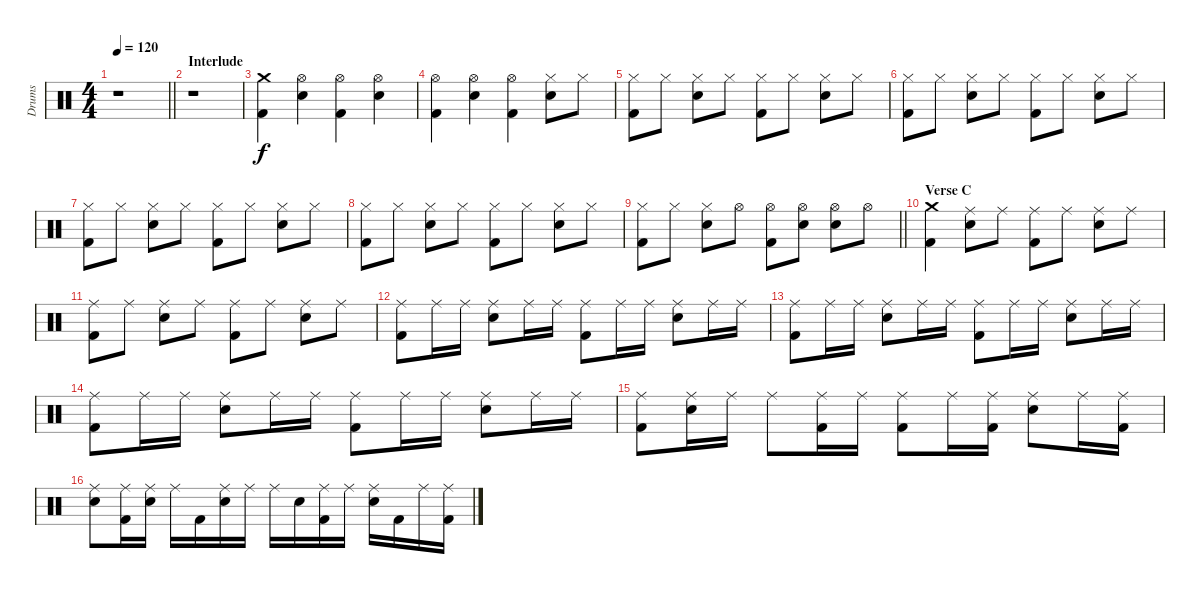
\track ("Drums" "Drums") {instrument percussion}
\staff {score}
\articulation defaults
\ts (4 4)
\tempo 120
\clef neutral
\barLineRight lightlight
\ks c
r.1{dy f} |
\section ("" "Interlude")
r.1 |
("Crash medium (hit)" "Kick (hit) 2").4 ("Hi-Hat (open)" "Electric Snare (hit)").4 ("Hi-Hat (open)" "Kick (hit) 2").4 ("Hi-Hat (open)" "Electric Snare (hit)").4 |
("Hi-Hat (open)" "Kick (hit) 2").4 ("Hi-Hat (open)" "Electric Snare (hit)").4 ("Hi-Hat (open)" "Kick (hit) 2").4 ("Hi-Hat (closed)" "Electric Snare (hit)").8 "Hi-Hat (closed)".8 |
("Hi-Hat (closed)" "Kick (hit) 2").8 "Hi-Hat (closed)".8 ("Hi-Hat (closed)" "Electric Snare (hit)").8 "Hi-Hat (closed)".8 ("Hi-Hat (closed)" "Kick (hit) 2").8 "Hi-Hat (closed)".8 ("Hi-Hat (closed)" "Electric Snare (hit)").8 "Hi-Hat (closed)".8 |
("Hi-Hat (closed)" "Kick (hit) 2").8 "Hi-Hat (closed)".8 ("Hi-Hat (closed)" "Electric Snare (hit)").8 "Hi-Hat (closed)".8 ("Hi-Hat (closed)" "Kick (hit) 2").8 "Hi-Hat (closed)".8 ("Hi-Hat (closed)" "Electric Snare (hit)").8 "Hi-Hat (closed)".8 |
("Hi-Hat (closed)" "Kick (hit) 2").8 "Hi-Hat (closed)".8 ("Hi-Hat (closed)" "Electric Snare (hit)").8 "Hi-Hat (closed)".8 ("Hi-Hat (closed)" "Kick (hit) 2").8 "Hi-Hat (closed)".8 ("Hi-Hat (closed)" "Electric Snare (hit)").8 "Hi-Hat (closed)".8 |
("Hi-Hat (closed)" "Kick (hit) 2").8 "Hi-Hat (closed)".8 ("Hi-Hat (closed)" "Electric Snare (hit)").8 "Hi-Hat (closed)".8 ("Hi-Hat (closed)" "Kick (hit) 2").8 "Hi-Hat (closed)".8 ("Hi-Hat (closed)" "Electric Snare (hit)").8 "Hi-Hat (closed)".8 |
\barLineRight lightlight
("Hi-Hat (closed)" "Kick (hit) 2").8 "Hi-Hat (closed)".8 ("Hi-Hat (closed)" "Electric Snare (hit)").8 "Hi-Hat (open)".8 ("Hi-Hat (open)" "Kick (hit) 2").8 ("Hi-Hat (open)" "Electric Snare (hit)").8 ("Hi-Hat (open)" "Electric Snare (hit)").8 "Hi-Hat (open)".8 |
\section ("" "Verse C")
("Crash medium (hit)" "Kick (hit) 2").4 ("Ride (middle)" "Electric Snare (hit)").8 "Ride (middle)".8 ("Ride (middle)" "Kick (hit) 2").8 "Ride (middle)".8 ("Ride (middle)" "Electric Snare (hit)").8 "Ride (middle)".8 |
("Ride (middle)" "Kick (hit) 2").8 "Ride (middle)".8 ("Ride (middle)" "Electric Snare (hit)").8 "Ride (middle)".8 ("Ride (middle)" "Kick (hit) 2").8 "Ride (middle)".8 ("Ride (middle)" "Electric Snare (hit)").8 "Ride (middle)".8 |
("Ride (middle)" "Kick (hit) 2").8 "Ride (middle)".16 "Ride (middle)".16 ("Ride (middle)" "Electric Snare (hit)").8 "Ride (middle)".16 "Ride (middle)".16 ("Ride (middle)" "Kick (hit) 2").8 "Ride (middle)".16 "Ride (middle)".16 ("Ride (middle)" "Electric Snare (hit)").8 "Ride (middle)".16 "Ride (middle)".16 |
("Ride (middle)" "Kick (hit) 2").8 "Ride (middle)".16 "Ride (middle)".16 ("Ride (middle)" "Electric Snare (hit)").8 "Ride (middle)".16 "Ride (middle)".16 ("Ride (middle)" "Kick (hit) 2").8 "Ride (middle)".16 "Ride (middle)".16 ("Ride (middle)" "Electric Snare (hit)").8 "Ride (middle)".16 "Ride (middle)".16 |
("Ride (middle)" "Kick (hit) 2").8 "Ride (middle)".16 "Ride (middle)".16 ("Ride (middle)" "Electric Snare (hit)").8 "Ride (middle)".16 "Ride (middle)".16 ("Ride (middle)" "Kick (hit) 2").8 "Ride (middle)".16 "Ride (middle)".16 ("Ride (middle)" "Electric Snare (hit)").8 "Ride (middle)".16 "Ride (middle)".16 |
("Ride (middle)" "Kick (hit) 2").8 ("Ride (middle)" "Electric Snare (hit)").16 "Ride (middle)".16 "Ride (middle)".8 ("Ride (middle)" "Kick (hit) 2").16 "Ride (middle)".16 ("Ride (middle)" "Kick (hit) 2").8 "Ride (middle)".16 ("Ride (middle)" "Kick (hit) 2").16 ("Ride (middle)" "Electric Snare (hit)").8 "Ride (middle)".16 ("Ride (middle)" "Kick (hit) 2").16 |
("Ride (middle)" "Electric Snare (hit)").8 ("Ride (middle)" "Kick (hit) 2").16 ("Ride (middle)" "Electric Snare (hit)").16 "Ride (middle)".16 "Kick (hit) 2".16 ("Ride (middle)" "Electric Snare (hit)").16 "Ride (middle)".16 "Ride (middle)".16 "Electric Snare (hit)".16 ("Ride (middle)" "Kick (hit) 2").16 "Ride (middle)".16 ("Ride (middle)" "Electric Snare (hit)").16 "Kick (hit) 2".16 "Ride (middle)".16 ("Ride (middle)" "Kick (hit) 2").16
